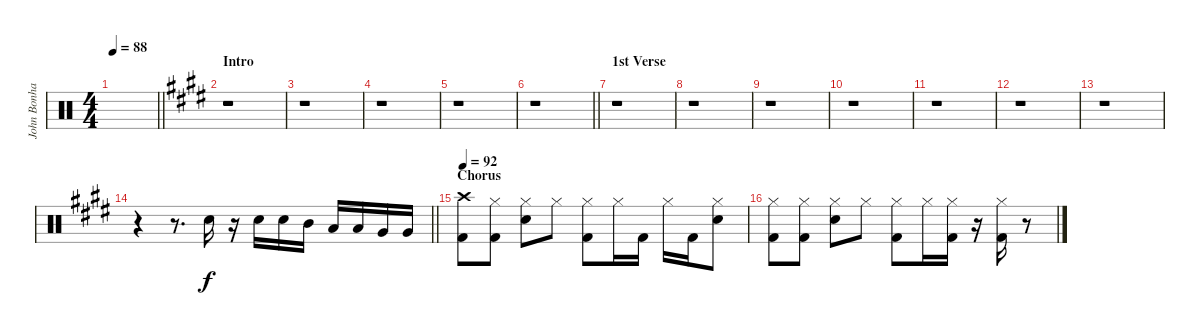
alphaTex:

\track ("John Bonham Drums" "John Bonha") {instrument percussion}
\staff {score}
\articulation defaults
\ts (4 4)
\tempo 88
\clef neutral
\barLineRight lightlight
\ks c
|
\section ("" "Intro")
\ks e
r.1 |
r.1 |
r.1 |
r.1 |
\barLineRight lightlight
r.1 |
\section ("" "1st Verse")
r.1 |
r.1 |
r.1 |
r.1 |
r.1 |
r.1 |
r.1 |
\barLineRight lightlight
r.4 r.8{d} "Snare (hit) 2".16 r.16 "Snare (hit) 2".16 "Snare (hit) 2".16 "Mid Tom (hit)".16 "Low Tom (hit)".16 "Low Tom (hit)".16 "Very Low Tom (hit)".16 "Very Low Tom (hit)".16 |
\section ("" "Chorus")
\tempo 92
("Crash high (hit)" "Kick (hit) 2").8 ("Hi-Hat (closed)" "Kick (hit) 2").8 ("Hi-Hat (closed)" "Snare (hit) 2").8 "Hi-Hat (closed)".8 ("Hi-Hat (closed)" "Kick (hit) 2").8 "Hi-Hat (closed)".16 "Kick (hit) 2".16 "Hi-Hat (closed)".16 "Kick (hit) 2".16 ("Hi-Hat (closed)" "Snare (hit) 2").8 |
("Hi-Hat (closed)" "Kick (hit) 2").8 ("Hi-Hat (closed)" "Kick (hit) 2").8 ("Hi-Hat (closed)" "Snare (hit) 2").8 "Hi-Hat (closed)".8 ("Hi-Hat (closed)" "Kick (hit) 2").8 "Hi-Hat (closed)".16 ("Hi-Hat (closed)" "Kick (hit) 2").16 r.16 ("Hi-Hat (closed)" "Kick (hit) 2").16 r.8
